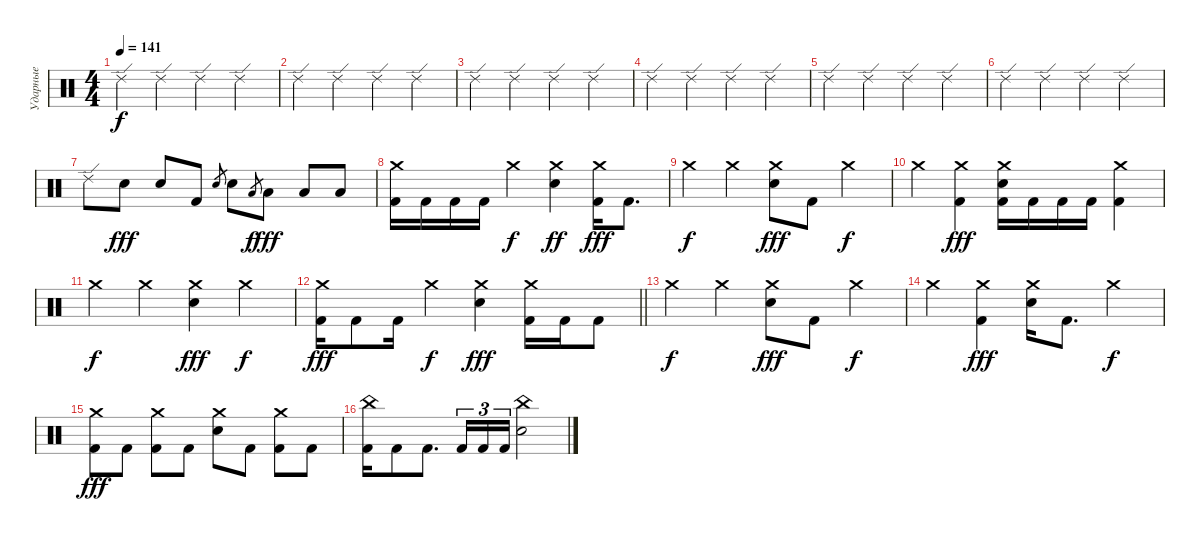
\track ("Ударные" "Ударные") {instrument percussion}
\staff {score}
\articulation defaults
\ts (4 4)
\tempo 141
\clef neutral
\ks c "Ride (edge) 2".4{dy f} "Ride (edge) 2".4 "Ride (edge) 2".4 "Ride (edge) 2".4
|
"Ride (edge) 2".4 "Ride (edge) 2".4 "Ride (edge) 2".4 "Ride (edge) 2".4 |
"Ride (edge) 2".4 "Ride (edge) 2".4 "Ride (edge) 2".4 "Ride (edge) 2".4 |
"Ride (edge) 2".4 "Ride (edge) 2".4 "Ride (edge) 2".4 "Ride (edge) 2".4 |
"Ride (edge) 2".4 "Ride (edge) 2".4 "Ride (edge) 2".4 "Ride (edge) 2".4 |
"Ride (edge) 2".4 "Ride (edge) 2".4 "Ride (edge) 2".4 "Ride (edge) 2".4 |
"Ride (edge) 2".8 "Electric Snare (hit)".8{dy fff} "Electric Snare (hit)".8 "Kick (hit) 2".8 "Electric Snare (hit)".8{gr} "Electric Snare (hit)".8 "Low Floor Tom (hit)".8{gr dy f} "Low Floor Tom (hit)".8{dy fff} "Low Floor Tom (hit)".8 "Low Floor Tom (hit)".8 |
("Crash medium (hit)" "Kick (hit) 2").16 "Kick (hit) 2".16 "Kick (hit) 2".16 "Kick (hit) 2".16 "Crash medium (hit)".4{dy f} ("Crash medium (hit)" "Electric Snare (hit)").4{dy ff} ("Crash medium (hit)" "Kick (hit) 2").16{dy fff} "Kick (hit) 2".8{d} |
"Crash medium (hit)".4{dy f} "Crash medium (hit)".4 ("Crash medium (hit)" "Electric Snare (hit)").8{dy fff} "Kick (hit) 2".8 "Crash medium (hit)".4{dy f} |
"Crash medium (hit)".4 ("Crash medium (hit)" "Kick (hit) 2").4{dy fff} ("Crash medium (hit)" "Electric Snare (hit)" "Kick (hit) 2").16 "Kick (hit) 2".16 "Kick (hit) 2".16 "Kick (hit) 2".16 ("Crash medium (hit)" "Kick (hit) 2").4 |
"Crash medium (hit)".4{dy f} "Crash medium (hit)".4 ("Crash medium (hit)" "Electric Snare (hit)").4{dy fff} "Crash medium (hit)".4{dy f} |
\barLineRight lightlight
("Crash medium (hit)" "Kick (hit) 2").16{dy fff} "Kick (hit) 2".8 "Kick (hit) 2".16 "Crash medium (hit)".4{dy f} ("Crash medium (hit)" "Electric Snare (hit)").4{dy fff} ("Crash medium (hit)" "Kick (hit) 2").16 "Kick (hit) 2".16 "Kick (hit) 2".8 |
\section ("" "")
"Crash medium (hit)".4{dy f} "Crash medium (hit)".4 ("Crash medium (hit)" "Electric Snare (hit)").8{dy fff} "Kick (hit) 2".8 "Crash medium (hit)".4{dy f} |
"Crash medium (hit)".4 ("Crash medium (hit)" "Kick (hit) 2").4{dy fff} ("Crash medium (hit)" "Electric Snare (hit)").16 "Kick (hit) 2".8{d} "Crash medium (hit)".4{dy f} |
("Crash medium (hit)" "Kick (hit) 2").8{dy fff} "Kick (hit) 2".8 ("Crash medium (hit)" "Kick (hit) 2").8 "Kick (hit) 2".8 ("Crash medium (hit)" "Electric Snare (hit)").8 "Kick (hit) 2".8 ("Crash medium (hit)" "Kick (hit) 2").8 "Kick (hit) 2".8 |
("China (hit)" "Kick (hit) 2").16 "Kick (hit) 2".8 "Kick (hit) 2".8{d} "Kick (hit) 2".16{tu (3 2)} "Kick (hit) 2".16{tu (3 2)} "Kick (hit) 2".16{tu (3 2)} ("China (hit)" "Electric Snare (hit)").2
